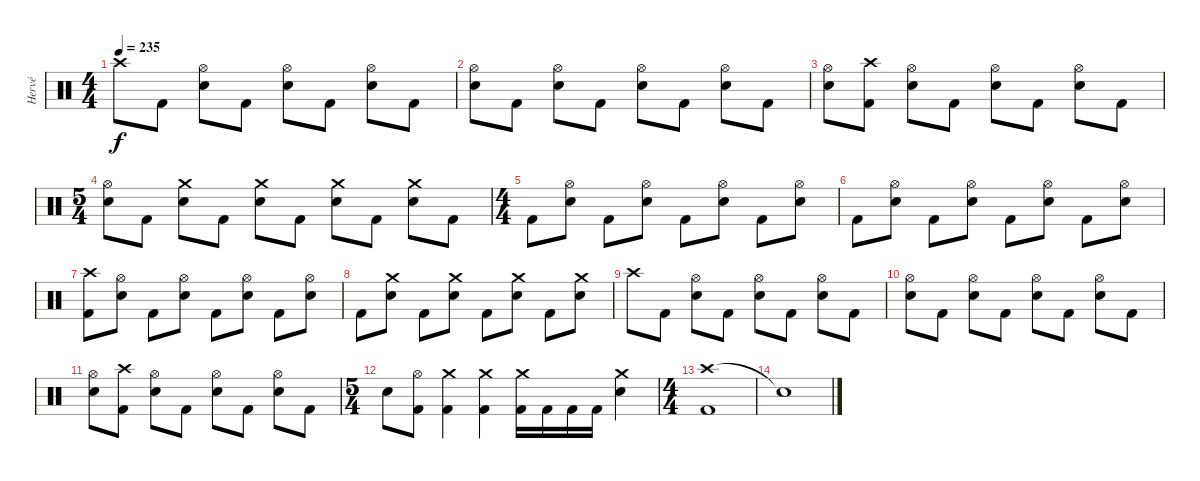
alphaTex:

\track ("Hervé" "Hervé") {instrument percussion}
\staff {score}
\articulation defaults
\ts (4 4)
\tempo 235
\clef neutral
\ks c "Crash high (hit)".8{dy f} "Kick (hit) 2".8
("Hi-Hat (open)" "Electric Snare (hit)").8 "Kick (hit) 2".8 ("Hi-Hat (open)" "Electric Snare (hit)").8 "Kick (hit) 2".8 ("Hi-Hat (open)" "Electric Snare (hit)").8 "Kick (hit) 2".8 |
("Hi-Hat (open)" "Electric Snare (hit)").8 "Kick (hit) 2".8 ("Hi-Hat (open)" "Electric Snare (hit)").8 "Kick (hit) 2".8 ("Hi-Hat (open)" "Electric Snare (hit)").8 "Kick (hit) 2".8 ("Hi-Hat (open)" "Electric Snare (hit)").8 "Kick (hit) 2".8 |
("Hi-Hat (open)" "Electric Snare (hit)").8 ("Crash high (hit)" "Kick (hit) 2").8 ("Hi-Hat (open)" "Electric Snare (hit)").8 "Kick (hit) 2".8 ("Hi-Hat (open)" "Electric Snare (hit)").8 "Kick (hit) 2".8 ("Hi-Hat (open)" "Electric Snare (hit)").8 "Kick (hit) 2".8 |
\ts (5 4)
("Hi-Hat (open)" "Electric Snare (hit)").8 "Kick (hit) 2".8 ("Crash medium (hit)" "Electric Snare (hit)").8 "Kick (hit) 2".8 ("Crash medium (hit)" "Electric Snare (hit)").8 "Kick (hit) 2".8 ("Crash medium (hit)" "Electric Snare (hit)").8 "Kick (hit) 2".8 ("Crash medium (hit)" "Electric Snare (hit)").8 "Kick (hit) 2".8 |
\ts (4 4)
"Kick (hit) 2".8 ("Hi-Hat (open)" "Electric Snare (hit)").8 "Kick (hit) 2".8 ("Hi-Hat (open)" "Electric Snare (hit)").8 "Kick (hit) 2".8 ("Hi-Hat (open)" "Electric Snare (hit)").8 "Kick (hit) 2".8 ("Hi-Hat (open)" "Electric Snare (hit)").8 |
"Kick (hit) 2".8 ("Hi-Hat (open)" "Electric Snare (hit)").8 "Kick (hit) 2".8 ("Hi-Hat (open)" "Electric Snare (hit)").8 "Kick (hit) 2".8 ("Hi-Hat (open)" "Electric Snare (hit)").8 "Kick (hit) 2".8 ("Hi-Hat (open)" "Electric Snare (hit)").8 |
("Crash high (hit)" "Kick (hit) 2").8 ("Hi-Hat (open)" "Electric Snare (hit)").8 "Kick (hit) 2".8 ("Hi-Hat (open)" "Electric Snare (hit)").8 "Kick (hit) 2".8 ("Hi-Hat (open)" "Electric Snare (hit)").8 "Kick (hit) 2".8 ("Hi-Hat (open)" "Electric Snare (hit)").8 |
"Kick (hit) 2".8 ("Crash medium (hit)" "Electric Snare (hit)").8 "Kick (hit) 2".8 ("Crash medium (hit)" "Electric Snare (hit)").8 "Kick (hit) 2".8 ("Crash medium (hit)" "Electric Snare (hit)").8 "Kick (hit) 2".8 ("Crash medium (hit)" "Electric Snare (hit)").8 |
"Crash high (hit)".8 "Kick (hit) 2".8 ("Hi-Hat (open)" "Electric Snare (hit)").8 "Kick (hit) 2".8 ("Hi-Hat (open)" "Electric Snare (hit)").8 "Kick (hit) 2".8 ("Hi-Hat (open)" "Electric Snare (hit)").8 "Kick (hit) 2".8 |
("Hi-Hat (open)" "Electric Snare (hit)").8 "Kick (hit) 2".8 ("Hi-Hat (open)" "Electric Snare (hit)").8 "Kick (hit) 2".8 ("Hi-Hat (open)" "Electric Snare (hit)").8 "Kick (hit) 2".8 ("Hi-Hat (open)" "Electric Snare (hit)").8 "Kick (hit) 2".8 |
("Hi-Hat (open)" "Electric Snare (hit)").8 ("Crash high (hit)" "Kick (hit) 2").8 ("Hi-Hat (open)" "Electric Snare (hit)").8 "Kick (hit) 2".8 ("Hi-Hat (open)" "Electric Snare (hit)").8 "Kick (hit) 2".8 ("Hi-Hat (open)" "Electric Snare (hit)").8 "Kick (hit) 2".8 |
\ts (5 4)
"Electric Snare (hit)".8 ("Hi-Hat (open)" "Kick (hit) 2").8 ("Crash medium (hit)" "Kick (hit) 2").4 ("Crash medium (hit)" "Kick (hit) 2").4 ("Crash medium (hit)" "Kick (hit) 2").16 "Kick (hit) 2".16 "Kick (hit) 2".16 "Kick (hit) 2".16 ("Crash medium (hit)" "Electric Snare (hit)").4 |
\ts (4 4)
("Crash high (hit)" "Kick (hit) 2").1 |
"Snare (hit)"{t}.1
